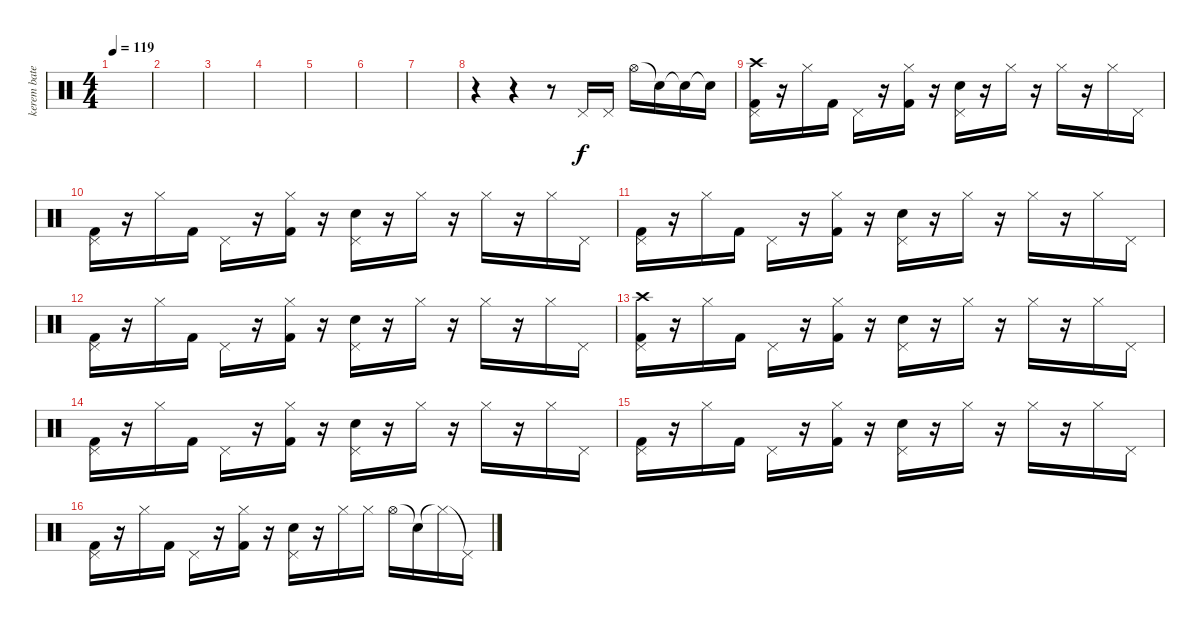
\track ("kerem bateri" "kerem bate") {instrument percussion}
\staff {score}
\articulation defaults
\ts (4 4)
\tempo 119
\clef neutral
\ks c
|
|
|
|
|
|
|
r.4 r.4 r.8 "Pedal Hi-Hat (hit)".16 "Pedal Hi-Hat (hit)".16 "Hi-Hat (open)".16 "Snare (hit)"{t}.16 "Snare (hit)"{t}.16 "Snare (hit)"{t}.16 |
("Pedal Hi-Hat (hit)" "Crash high (hit)" "Kick (hit) 2").16 r.16 "Hi-Hat (closed)".16 "Kick (hit) 2".16 "Pedal Hi-Hat (hit)".16 r.16 ("Hi-Hat (closed)" "Kick (hit) 2").16 r.16 ("Pedal Hi-Hat (hit)" "Electric Snare (hit)").16 r.16 "Hi-Hat (closed)".16 r.16 "Hi-Hat (closed)".16 r.16 "Hi-Hat (closed)".16 "Pedal Hi-Hat (hit)".16 |
("Pedal Hi-Hat (hit)" "Kick (hit) 2").16 r.16 "Hi-Hat (closed)".16 "Kick (hit) 2".16 "Pedal Hi-Hat (hit)".16 r.16 ("Hi-Hat (closed)" "Kick (hit) 2").16 r.16 ("Pedal Hi-Hat (hit)" "Electric Snare (hit)").16 r.16 "Hi-Hat (closed)".16 r.16 "Hi-Hat (closed)".16 r.16 "Hi-Hat (closed)".16 "Pedal Hi-Hat (hit)".16 |
("Pedal Hi-Hat (hit)" "Kick (hit) 2").16 r.16 "Hi-Hat (closed)".16 "Kick (hit) 2".16 "Pedal Hi-Hat (hit)".16 r.16 ("Hi-Hat (closed)" "Kick (hit) 2").16 r.16 ("Pedal Hi-Hat (hit)" "Electric Snare (hit)").16 r.16 "Hi-Hat (closed)".16 r.16 "Hi-Hat (closed)".16 r.16 "Hi-Hat (closed)".16 "Pedal Hi-Hat (hit)".16 |
("Pedal Hi-Hat (hit)" "Kick (hit) 2").16 r.16 "Hi-Hat (closed)".16 "Kick (hit) 2".16 "Pedal Hi-Hat (hit)".16 r.16 ("Hi-Hat (closed)" "Kick (hit) 2").16 r.16 ("Pedal Hi-Hat (hit)" "Electric Snare (hit)").16 r.16 "Hi-Hat (closed)".16 r.16 "Hi-Hat (closed)".16 r.16 "Hi-Hat (closed)".16 "Pedal Hi-Hat (hit)".16 |
("Pedal Hi-Hat (hit)" "Crash high (hit)" "Kick (hit) 2").16 r.16 "Hi-Hat (closed)".16 "Kick (hit) 2".16 "Pedal Hi-Hat (hit)".16 r.16 ("Hi-Hat (closed)" "Kick (hit) 2").16 r.16 ("Pedal Hi-Hat (hit)" "Electric Snare (hit)").16 r.16 "Hi-Hat (closed)".16 r.16 "Hi-Hat (closed)".16 r.16 "Hi-Hat (closed)".16 "Pedal Hi-Hat (hit)".16 |
("Pedal Hi-Hat (hit)" "Kick (hit) 2").16 r.16 "Hi-Hat (closed)".16 "Kick (hit) 2".16 "Pedal Hi-Hat (hit)".16 r.16 ("Hi-Hat (closed)" "Kick (hit) 2").16 r.16 ("Pedal Hi-Hat (hit)" "Electric Snare (hit)").16 r.16 "Hi-Hat (closed)".16 r.16 "Hi-Hat (closed)".16 r.16 "Hi-Hat (closed)".16 "Pedal Hi-Hat (hit)".16 |
("Pedal Hi-Hat (hit)" "Kick (hit) 2").16 r.16 "Hi-Hat (closed)".16 "Kick (hit) 2".16 "Pedal Hi-Hat (hit)".16 r.16 ("Hi-Hat (closed)" "Kick (hit) 2").16 r.16 ("Pedal Hi-Hat (hit)" "Electric Snare (hit)").16 r.16 "Hi-Hat (closed)".16 r.16 "Hi-Hat (closed)".16 r.16 "Hi-Hat (closed)".16 "Pedal Hi-Hat (hit)".16 |
("Pedal Hi-Hat (hit)" "Kick (hit) 2").16 r.16 "Hi-Hat (closed)".16 "Kick (hit) 2".16 "Pedal Hi-Hat (hit)".16 r.16 ("Hi-Hat (closed)" "Kick (hit) 2").16 r.16 ("Pedal Hi-Hat (hit)" "Electric Snare (hit)").16 r.16 "Hi-Hat (closed)".16 "Hi-Hat (closed)".16 "Hi-Hat (open)".16 "Snare (hit)"{t}.16 "Hi-Hat (closed)"{t}.16 "Pedal Hi-Hat (hit)"{t}.16
